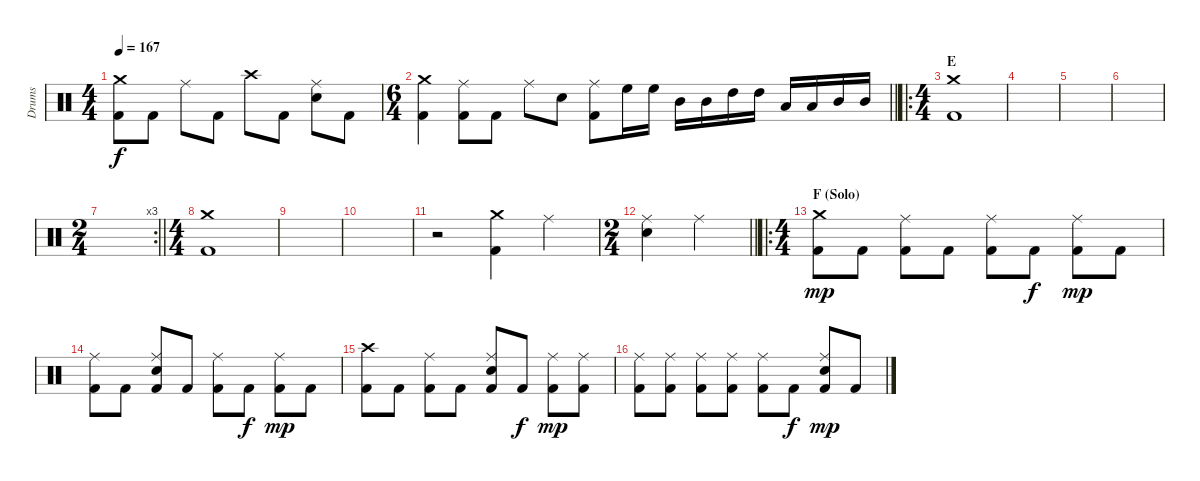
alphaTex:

\track ("Drums" "Drums") {instrument percussion}
\staff {score}
\articulation defaults
\ts (4 4)
\section ("" "")
\tempo 167
\clef neutral
\ks c
("Crash medium (hit)" "Kick (hit) 2").8{dy f} "Kick (hit) 2".8 "Ride (middle)".8 "Kick (hit) 2".8 "Crash high (hit)".8 "Kick (hit) 2".8 ("Ride (middle)" "Electric Snare (hit)").8 "Kick (hit) 2".8 |
\ts (6 4)
\barLineRight lightlight
("Crash medium (hit)" "Kick (hit) 2").4 ("Ride (middle)" "Kick (hit) 2").8 "Kick (hit) 2".8 "Ride (middle)".8 "Electric Snare (hit)".8 ("Ride (middle)" "Kick (hit) 2").8 "High Floor Tom (hit)".16 "High Floor Tom (hit)".16 "Mid Tom (hit)".16 "Mid Tom (hit)".16 "High Tom (hit)".16 "High Tom (hit)".16 "Low Tom (hit)".16 "Low Tom (hit)".16 "Mid Tom (hit)".16 "Mid Tom (hit)".16 |
\ro
\ts (4 4)
\section ("" "E")
("Crash medium (hit)" "Kick (hit) 2").1 |
|
|
|
\rc 3
\ts (2 4)
\barLineRight lightlight
|
\ts (4 4)
("Crash medium (hit)" "Kick (hit) 2").1 |
|
|
r.2 ("Crash medium (hit)" "Kick (hit) 2").4 "Ride (middle)".4 |
\ts (2 4)
\barLineRight lightlight
("Ride (middle)" "Electric Snare (hit)").4 "Ride (middle)".4 |
\ro
\ts (4 4)
\section ("" "F (Solo)")
("Crash medium (hit)" "Kick (hit) 2").8{dy mp} "Kick (hit) 2".8 ("Ride (middle)" "Kick (hit) 2").8 "Kick (hit) 2".8 ("Ride (middle)" "Kick (hit) 2").8 "Kick (hit) 2".8{dy f} ("Ride (middle)" "Kick (hit) 2").8{dy mp} "Kick (hit) 2".8 |
("Ride (middle)" "Kick (hit) 2").8 "Kick (hit) 2".8 ("Ride (middle)" "Electric Snare (hit)" "Kick (hit) 2").8 "Kick (hit) 2".8 ("Ride (middle)" "Kick (hit) 2").8 "Kick (hit) 2".8{dy f} ("Ride (middle)" "Kick (hit) 2").8{dy mp} "Kick (hit) 2".8 |
("Crash high (hit)" "Kick (hit) 2").8 "Kick (hit) 2".8 ("Ride (middle)" "Kick (hit) 2").8 "Kick (hit) 2".8 ("Ride (middle)" "Electric Snare (hit)" "Kick (hit) 2").8 "Kick (hit) 2".8{dy f} ("Ride (middle)" "Kick (hit) 2").8{dy mp} ("Ride (middle)" "Kick (hit) 2").8 |
("Ride (middle)" "Kick (hit) 2").8 ("Ride (middle)" "Kick (hit) 2").8 ("Ride (middle)" "Kick (hit) 2").8 ("Ride (middle)" "Kick (hit) 2").8 ("Ride (middle)" "Kick (hit) 2").8 "Kick (hit) 2".8{dy f} ("Ride (middle)" "Electric Snare (hit)" "Kick (hit) 2").8{dy mp} "Kick (hit) 2".8
